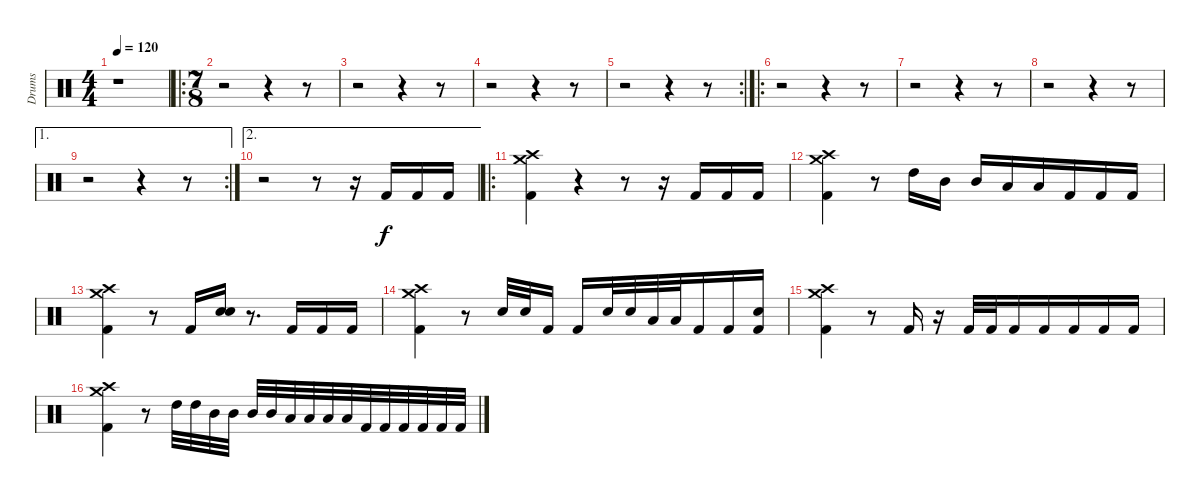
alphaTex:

\track ("Drums" "Drums") {instrument percussion}
\staff {score}
\articulation defaults
\ts (4 4)
\tempo 120
\clef neutral
\ks c
r.1{dy f} |
\ro
\ts (7 8)
r.2 r.4 r.8 |
r.2 r.4 r.8 |
r.2 r.4 r.8 |
\rc 2
r.2 r.4 r.8 |
\ro
r.2 r.4 r.8 |
r.2 r.4 r.8 |
r.2 r.4 r.8 |
\ae 1
\rc 2
r.2 r.4 r.8 |
\ae 2
r.2 r.8 r.16 "Kick (hit) 2".16 "Kick (hit) 2".16 "Kick (hit) 2".16 |
\ro
("Crash medium (hit)" "Crash high (hit)" "Kick (hit) 2").4 r.4 r.8 r.16 "Kick (hit) 2".16 "Kick (hit) 2".16 "Kick (hit) 2".16 |
("Crash medium (hit)" "Crash high (hit)" "Kick (hit) 2").4 r.8 "High Tom (hit)".16 "Mid Tom (hit)".16 "Mid Tom (hit)".16 "Low Tom (hit)".16 "Low Tom (hit)".16 "Kick (hit) 2".16 "Kick (hit) 2".16 "Kick (hit) 2".16 |
("Crash medium (hit)" "Crash high (hit)" "Kick (hit) 2").4 r.8 "Kick (hit) 2".16 ("Snare (hit) 2" "Snare (hit) 2").16 r.8{d} "Kick (hit) 2".16 "Kick (hit) 2".16 "Kick (hit) 2".16 |
("Crash medium (hit)" "Crash high (hit)" "Kick (hit) 2").4 r.8 "Snare (hit) 2".32 "Snare (hit) 2".32 "Kick (hit) 2".16 "Kick (hit) 2".16 "Snare (hit) 2".32 "Snare (hit) 2".32 "Low Tom (hit)".32 "Low Tom (hit)".32 "Kick (hit) 2".16 "Kick (hit) 2".16 ("Snare (hit) 2" "Kick (hit) 2").16 |
("Crash medium (hit)" "Crash high (hit)" "Kick (hit) 2").4 r.8 "Kick (hit) 2".16 r.16 "Kick (hit) 2".32 "Kick (hit) 2".32 "Kick (hit) 2".16 "Kick (hit) 2".16 "Kick (hit) 2".16 "Kick (hit) 2".16 "Kick (hit) 2".16 |
("Crash medium (hit)" "Crash high (hit)" "Kick (hit) 2").4 r.8 "High Tom (hit)".32 "High Tom (hit)".32 "Mid Tom (hit)".32 "Mid Tom (hit)".32 "Mid Tom (hit)".32 "Mid Tom (hit)".32 "Low Tom (hit)".32 "Low Tom (hit)".32 "Low Tom (hit)".32 "Low Tom (hit)".32 "Kick (hit) 2".32 "Kick (hit) 2".32 "Kick (hit) 2".32 "Kick (hit) 2".32 "Kick (hit) 2".32 "Kick (hit) 2".32
